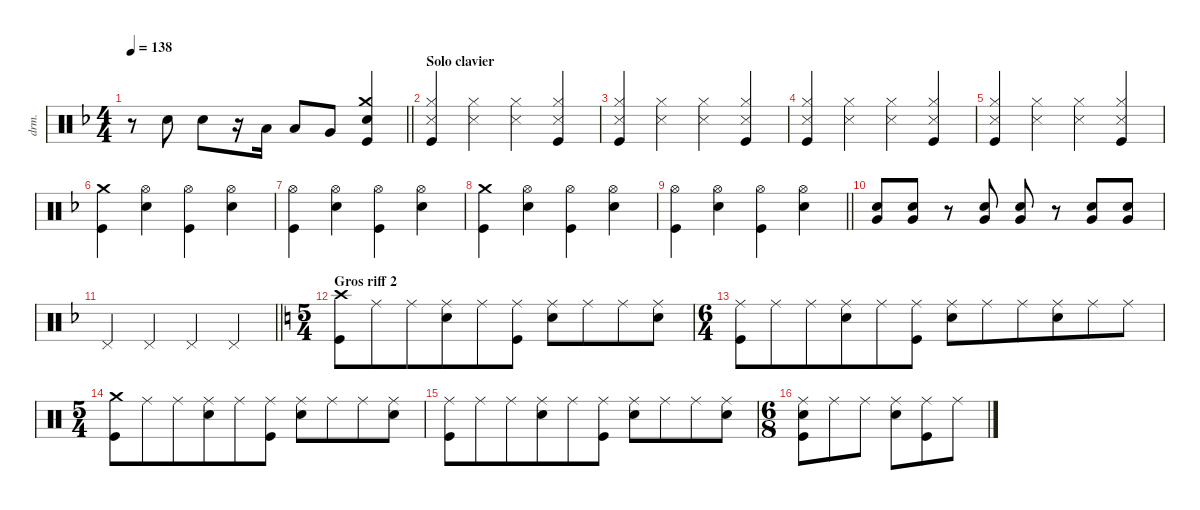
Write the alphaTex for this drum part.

\defaultSystemsLayout 4
\hideDynamics
\bracketExtendMode nobrackets
\track ("Percussions" "drm.") {instrument percussion}
\staff {score}
\articulation defaults
\ts (4 4)
\tempo 138
\clef neutral
\barLineRight lightlight
\ks dminor
r.8{dy f} "Snare (hit) 2"{acc forcenatural}.8 "Snare (hit) 2"{acc forcenatural}.8 r.16 "Low Tom (hit)"{acc forcenatural}.16 "Low Tom (hit)"{acc forcenatural}.8 "Very Low Tom (hit)"{acc forcenatural}.8 ("Crash medium (hit)"{acc forcenatural} "Snare (hit) 2"{acc forcenatural} "Kick (hit)"{acc forcenatural}).4 |
\section ("" "Solo clavier")
("Hi-Hat (closed)"{acc forcenatural} "Snare (side stick) 3"{acc forcenatural} "Kick (hit)"{acc forcenatural}).4 ("Hi-Hat (closed)"{acc forcenatural} "Snare (side stick) 3"{acc forcenatural}).4 ("Hi-Hat (closed)"{acc forcenatural} "Snare (side stick) 3"{acc forcenatural}).4 ("Hi-Hat (closed)"{acc forcenatural} "Snare (side stick) 3"{acc forcenatural} "Kick (hit)"{acc forcenatural}).4 |
("Hi-Hat (closed)"{acc forcenatural} "Snare (side stick) 3"{acc forcenatural} "Kick (hit)"{acc forcenatural}).4 ("Hi-Hat (closed)"{acc forcenatural} "Snare (side stick) 3"{acc forcenatural}).4 ("Hi-Hat (closed)"{acc forcenatural} "Snare (side stick) 3"{acc forcenatural}).4 ("Hi-Hat (closed)"{acc forcenatural} "Snare (side stick) 3"{acc forcenatural} "Kick (hit)"{acc forcenatural}).4 |
("Hi-Hat (closed)"{acc forcenatural} "Snare (side stick) 3"{acc forcenatural} "Kick (hit)"{acc forcenatural}).4 ("Hi-Hat (closed)"{acc forcenatural} "Snare (side stick) 3"{acc forcenatural}).4 ("Hi-Hat (closed)"{acc forcenatural} "Snare (side stick) 3"{acc forcenatural}).4 ("Hi-Hat (closed)"{acc forcenatural} "Snare (side stick) 3"{acc forcenatural} "Kick (hit)"{acc forcenatural}).4 |
("Hi-Hat (closed)"{acc forcenatural} "Snare (side stick) 3"{acc forcenatural} "Kick (hit)"{acc forcenatural}).4 ("Hi-Hat (closed)"{acc forcenatural} "Snare (side stick) 3"{acc forcenatural}).4 ("Hi-Hat (closed)"{acc forcenatural} "Snare (side stick) 3"{acc forcenatural}).4 ("Hi-Hat (closed)"{acc forcenatural} "Snare (side stick) 3"{acc forcenatural} "Kick (hit)"{acc forcenatural}).4 |
("Crash medium (hit)"{acc forcenatural} "Kick (hit)"{acc forcenatural}).4 ("Hi-Hat (open)"{acc forcenatural} "Snare (hit) 2"{acc forcenatural}).4 ("Hi-Hat (open)"{acc forcenatural} "Kick (hit)"{acc forcenatural}).4 ("Hi-Hat (open)"{acc forcenatural} "Snare (hit) 2"{acc forcenatural}).4 |
("Hi-Hat (open)"{acc forcenatural} "Kick (hit)"{acc forcenatural}).4 ("Hi-Hat (open)"{acc forcenatural} "Snare (hit) 2"{acc forcenatural}).4 ("Hi-Hat (open)"{acc forcenatural} "Kick (hit)"{acc forcenatural}).4 ("Hi-Hat (open)"{acc forcenatural} "Snare (hit) 2"{acc forcenatural}).4 |
("Crash medium (hit)"{acc forcenatural} "Kick (hit)"{acc forcenatural}).4 ("Hi-Hat (open)"{acc forcenatural} "Snare (hit) 2"{acc forcenatural}).4 ("Hi-Hat (open)"{acc forcenatural} "Kick (hit)"{acc forcenatural}).4 ("Hi-Hat (open)"{acc forcenatural} "Snare (hit) 2"{acc forcenatural}).4 |
\barLineRight lightlight
("Hi-Hat (open)"{acc forcenatural} "Kick (hit)"{acc forcenatural}).4 ("Hi-Hat (open)"{acc forcenatural} "Snare (hit) 2"{acc forcenatural}).4 ("Hi-Hat (open)"{acc forcenatural} "Kick (hit)"{acc forcenatural}).4 ("Hi-Hat (open)"{acc forcenatural} "Snare (hit) 2"{acc forcenatural}).4 |
("Snare (hit) 2"{acc forcenatural} "Very Low Tom (hit)"{acc forcenatural}).8 ("Snare (hit) 2"{acc forcenatural} "Very Low Tom (hit)"{acc forcenatural}).8 r.8 ("Snare (hit) 2"{acc forcenatural} "Very Low Tom (hit)"{acc forcenatural}).8 ("Snare (hit) 2"{acc forcenatural} "Very Low Tom (hit)"{acc forcenatural}).8 r.8 ("Snare (hit) 2"{acc forcenatural} "Very Low Tom (hit)"{acc forcenatural}).8 ("Snare (hit) 2"{acc forcenatural} "Very Low Tom (hit)"{acc forcenatural}).8 |
\barLineRight lightlight "Pedal Hi-Hat (hit)"{acc forcenatural}.4 "Pedal Hi-Hat (hit)"{acc forcenatural}.4 "Pedal Hi-Hat (hit)"{acc forcenatural}.4 "Pedal Hi-Hat (hit)"{acc forcenatural}.4
|
\ts (5 4)
\beaming (8 6 4)
\section ("" "Gros riff 2")
\ks aminor
("Crash high (hit)" "Kick (hit)").8 "Ride (middle)".8{dy mp} "Ride (middle)".8 ("Ride (middle)" "Snare (hit) 2").8{dy f} "Ride (middle)".8{dy mp} ("Ride (middle)" "Kick (hit)").8 ("Ride (middle)" "Snare (hit) 2").8{dy f} "Ride (middle)".8{dy mp} "Ride (middle)".8 ("Ride (middle)" "Snare (hit) 2").8{dy f} |
\ts (6 4)
\beaming (8 6 6)
("Ride (middle)" "Kick (hit)").8 "Ride (middle)".8{dy mp} "Ride (middle)".8 ("Ride (middle)" "Snare (hit) 2").8{dy f} "Ride (middle)".8{dy mp} ("Ride (middle)" "Kick (hit)").8 ("Ride (middle)" "Snare (hit) 2").8{dy f} "Ride (middle)".8{dy mp} "Ride (middle)".8 ("Ride (middle)" "Snare (hit) 2").8 "Ride (middle)".8{dy f} "Ride (middle)".8 |
\ts (5 4)
\beaming (8 6 4)
("Crash medium (hit)" "Kick (hit)").8 "Ride (middle)".8{dy mp} "Ride (middle)".8 ("Ride (middle)" "Snare (hit) 2").8{dy f} "Ride (middle)".8{dy mp} ("Ride (middle)" "Kick (hit)").8 ("Ride (middle)" "Snare (hit) 2").8{dy f} "Ride (middle)".8{dy mp} "Ride (middle)".8 ("Ride (middle)" "Snare (hit) 2").8{dy f} |
("Ride (middle)" "Kick (hit)").8 "Ride (middle)".8{dy mp} "Ride (middle)".8 ("Ride (middle)" "Snare (hit) 2").8{dy f} "Ride (middle)".8{dy mp} ("Ride (middle)" "Kick (hit)").8 ("Ride (middle)" "Snare (hit) 2").8{dy f} "Ride (middle)".8{dy mp} "Ride (middle)".8 ("Ride (middle)" "Snare (hit) 2").8 |
\ts (6 8)
\beaming (8 3 3)
("Ride (middle)" "Snare (hit) 2" "Kick (hit)").8{dy f} "Ride (middle)".8{dy mp} "Ride (middle)".8 ("Ride (middle)" "Snare (hit) 2").8 ("Ride (middle)" "Kick (hit)").8 "Ride (middle)".8{dy f}
